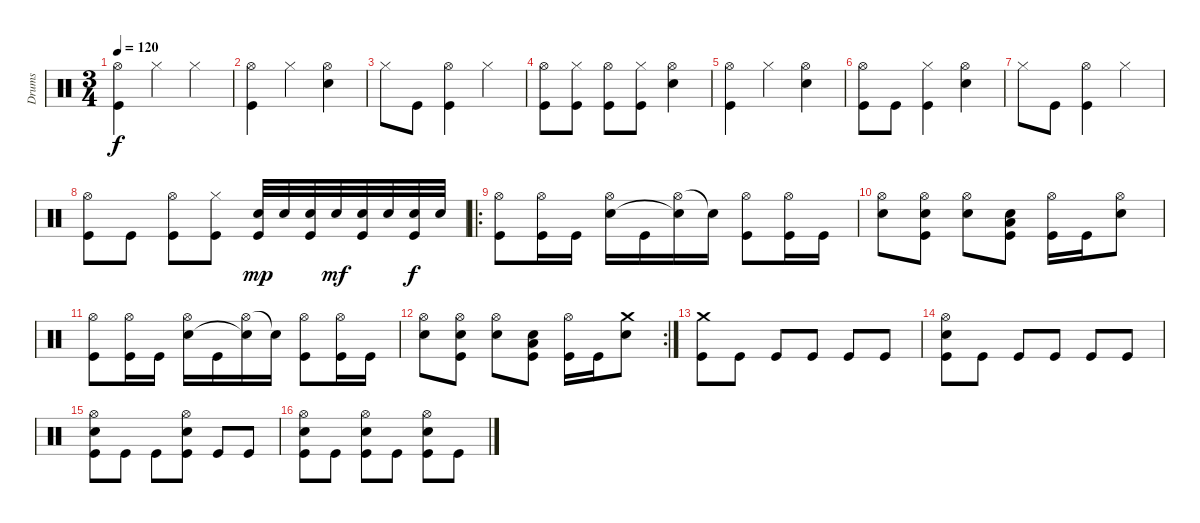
\track ("Drums" "Drums") {instrument percussion}
\staff {score}
\articulation defaults
\ts (3 4)
\tempo 120
\clef neutral
\ks c
("Hi-Hat (open)" "Kick (hit)").4{dy f} "Hi-Hat (closed)".4 "Hi-Hat (closed)".4 |
("Hi-Hat (open)" "Kick (hit)").4 "Hi-Hat (closed)".4 ("Hi-Hat (open)" "Snare (hit) 2").4 |
"Hi-Hat (closed)".8 "Kick (hit)".8 ("Hi-Hat (open)" "Kick (hit)").4 "Hi-Hat (closed)".4 |
("Hi-Hat (open)" "Kick (hit)").8 ("Hi-Hat (closed)" "Kick (hit)").8 ("Hi-Hat (open)" "Kick (hit)").8 ("Hi-Hat (closed)" "Kick (hit)").8 ("Hi-Hat (open)" "Snare (hit) 2").4 |
("Hi-Hat (open)" "Kick (hit)").4 "Hi-Hat (closed)".4 ("Hi-Hat (open)" "Snare (hit) 2").4 |
("Hi-Hat (open)" "Kick (hit)").8 "Kick (hit)".8 ("Hi-Hat (closed)" "Kick (hit)").4 ("Hi-Hat (open)" "Snare (hit) 2").4 |
"Hi-Hat (closed)".8 "Kick (hit)".8 ("Hi-Hat (open)" "Kick (hit)").4 "Hi-Hat (closed)".4 |
("Hi-Hat (open)" "Kick (hit)").8 "Kick (hit)".8 ("Hi-Hat (open)" "Kick (hit)").8 ("Hi-Hat (closed)" "Kick (hit)").8 ("Snare (hit) 2" "Kick (hit)").32{dy mp} "Snare (hit) 2".32 ("Snare (hit) 2" "Kick (hit)").32 "Snare (hit) 2".32{dy mf} ("Snare (hit) 2" "Kick (hit)").32 "Snare (hit) 2".32 ("Snare (hit) 2" "Kick (hit)").32{dy f} "Snare (hit) 2".32 |
\ro
("Hi-Hat (open)" "Kick (hit)").8{volume 16} ("Hi-Hat (open)" "Kick (hit)").16 "Kick (hit)".16 ("Hi-Hat (open)" "Snare (hit) 2").16 "Kick (hit)".16 ("Hi-Hat (open)" "Snare (hit)"{t}).16 "Snare (hit)"{t}.16 ("Hi-Hat (open)" "Kick (hit)").8 ("Hi-Hat (open)" "Kick (hit)").16 "Kick (hit)".16 |
("Hi-Hat (open)" "Snare (hit) 2").8 ("Hi-Hat (open)" "Snare (hit) 2" "Kick (hit)").8 ("Hi-Hat (open)" "Snare (hit) 2").8 ("Low Floor Tom (hit)" "Snare (hit) 2" "Kick (hit)").8 ("Hi-Hat (open)" "Kick (hit)").16 "Kick (hit)".16 ("Hi-Hat (open)" "Snare (hit) 2").8 |
("Hi-Hat (open)" "Kick (hit)").8 ("Hi-Hat (open)" "Kick (hit)").16 "Kick (hit)".16 ("Hi-Hat (open)" "Snare (hit) 2").16 "Kick (hit)".16 ("Hi-Hat (open)" "Snare (hit)"{t}).16 "Snare (hit)"{t}.16 ("Hi-Hat (open)" "Kick (hit)").8 ("Hi-Hat (open)" "Kick (hit)").16 "Kick (hit)".16 |
\rc 2
("Hi-Hat (open)" "Snare (hit) 2").8 ("Hi-Hat (open)" "Snare (hit) 2" "Kick (hit)").8 ("Hi-Hat (open)" "Snare (hit) 2").8 ("Low Floor Tom (hit)" "Snare (hit) 2" "Kick (hit)").8 ("Hi-Hat (open)" "Kick (hit)").16 "Kick (hit)".16 ("Crash medium (hit)" "Snare (hit) 2").8 |
("Crash medium (hit)" "Kick (hit)").8 "Kick (hit)".8 "Kick (hit)".8 "Kick (hit)".8 "Kick (hit)".8 "Kick (hit)".8 |
("Hi-Hat (open)" "Snare (hit) 2" "Kick (hit)").8 "Kick (hit)".8 "Kick (hit)".8 "Kick (hit)".8 "Kick (hit)".8 "Kick (hit)".8 |
("Hi-Hat (open)" "Snare (hit) 2" "Kick (hit)").8 "Kick (hit)".8 "Kick (hit)".8 ("Hi-Hat (open)" "Snare (hit) 2" "Kick (hit)").8 "Kick (hit)".8 "Kick (hit)".8 |
("Hi-Hat (open)" "Snare (hit) 2" "Kick (hit)").8 "Kick (hit)".8 ("Hi-Hat (open)" "Snare (hit) 2" "Kick (hit)").8 "Kick (hit)".8 ("Hi-Hat (open)" "Snare (hit) 2" "Kick (hit)").8 "Kick (hit)".8
